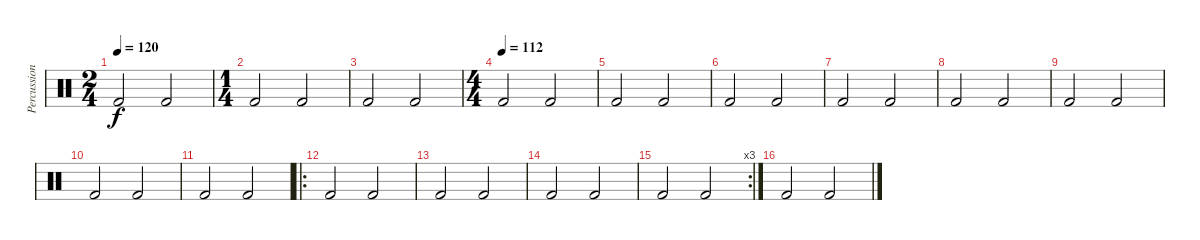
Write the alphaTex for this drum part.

\track ("Percussion" "Percussion") {mute instrument percussion}
\staff {score}
\articulation defaults
\ts (2 4)
\tempo 120
\clef neutral
\ks c "Kick (hit) 2".2{dy f} "Kick (hit) 2".2
|
\ts (1 4)
"Kick (hit) 2".2 "Kick (hit) 2".2 |
"Kick (hit) 2".2 "Kick (hit) 2".2 |
\ts (4 4)
\tempo 110
\tempo (112)
"Kick (hit) 2".2 "Kick (hit) 2".2 |
"Kick (hit) 2".2 "Kick (hit) 2".2 |
"Kick (hit) 2".2 "Kick (hit) 2".2 |
"Kick (hit) 2".2 "Kick (hit) 2".2 |
"Kick (hit) 2".2 "Kick (hit) 2".2 |
"Kick (hit) 2".2 "Kick (hit) 2".2 |
"Kick (hit) 2".2 "Kick (hit) 2".2 |
"Kick (hit) 2".2 "Kick (hit) 2".2 |
\ro "Kick (hit) 2".2 "Kick (hit) 2".2
|
"Kick (hit) 2".2 "Kick (hit) 2".2 |
"Kick (hit) 2".2 "Kick (hit) 2".2 |
\rc 3 "Kick (hit) 2".2 "Kick (hit) 2".2
|
"Kick (hit) 2".2 "Kick (hit) 2".2
